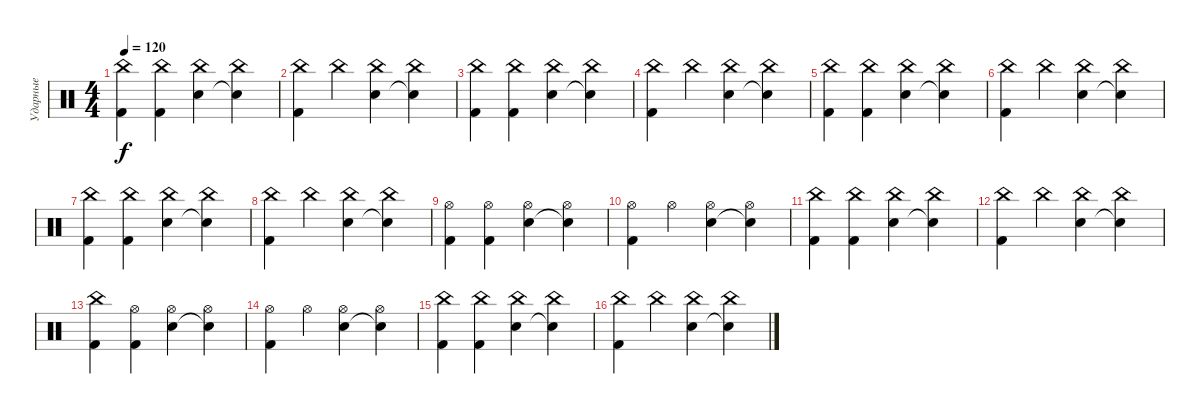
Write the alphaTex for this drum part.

\track ("Ударные" "Ударные") {instrument percussion}
\staff {score}
\articulation defaults
\ts (4 4)
\tempo 120
\clef neutral
\ks c
("China (hit)" "Kick (hit) 2").4{dy f} ("China (hit)" "Kick (hit) 2").4 ("China (hit)" "Electric Snare (hit)").4 ("China (hit)" "Snare (hit)"{t}).4 |
("China (hit)" "Kick (hit) 2").4 "China (hit)".4 ("China (hit)" "Electric Snare (hit)").4 ("China (hit)" "Snare (hit)"{t}).4 |
("China (hit)" "Kick (hit) 2").4 ("China (hit)" "Kick (hit) 2").4 ("China (hit)" "Electric Snare (hit)").4 ("China (hit)" "Snare (hit)"{t}).4 |
("China (hit)" "Kick (hit) 2").4 "China (hit)".4 ("China (hit)" "Electric Snare (hit)").4 ("China (hit)" "Snare (hit)"{t}).4 |
("China (hit)" "Kick (hit) 2").4 ("China (hit)" "Kick (hit) 2").4 ("China (hit)" "Electric Snare (hit)").4 ("China (hit)" "Snare (hit)"{t}).4 |
("China (hit)" "Kick (hit) 2").4 "China (hit)".4 ("China (hit)" "Electric Snare (hit)").4 ("China (hit)" "Snare (hit)"{t}).4 |
("China (hit)" "Kick (hit) 2").4 ("China (hit)" "Kick (hit) 2").4 ("China (hit)" "Electric Snare (hit)").4 ("China (hit)" "Snare (hit)"{t}).4 |
("China (hit)" "Kick (hit) 2").4 "China (hit)".4 ("China (hit)" "Electric Snare (hit)").4 ("China (hit)" "Snare (hit)"{t}).4 |
("Hi-Hat (open)" "Kick (hit) 2").4 ("Hi-Hat (open)" "Kick (hit) 2").4 ("Hi-Hat (open)" "Electric Snare (hit)").4 ("Hi-Hat (open)" "Snare (hit)"{t}).4 |
("Hi-Hat (open)" "Kick (hit) 2").4 "Hi-Hat (open)".4 ("Hi-Hat (open)" "Electric Snare (hit)").4 ("Hi-Hat (open)" "Snare (hit)"{t}).4 |
("China (hit)" "Kick (hit) 2").4 ("China (hit)" "Kick (hit) 2").4 ("China (hit)" "Electric Snare (hit)").4 ("China (hit)" "Snare (hit)"{t}).4 |
("China (hit)" "Kick (hit) 2").4 "China (hit)".4 ("China (hit)" "Electric Snare (hit)").4 ("China (hit)" "Snare (hit)"{t}).4 |
("China (hit)" "Kick (hit) 2").4 ("Hi-Hat (open)" "Kick (hit) 2").4 ("Hi-Hat (open)" "Electric Snare (hit)").4 ("Hi-Hat (open)" "Snare (hit)"{t}).4 |
("Hi-Hat (open)" "Kick (hit) 2").4 "Hi-Hat (open)".4 ("Hi-Hat (open)" "Electric Snare (hit)").4 ("Hi-Hat (open)" "Snare (hit)"{t}).4 |
("China (hit)" "Kick (hit) 2").4 ("China (hit)" "Kick (hit) 2").4 ("China (hit)" "Electric Snare (hit)").4 ("China (hit)" "Snare (hit)"{t}).4 |
("China (hit)" "Kick (hit) 2").4 "China (hit)".4 ("China (hit)" "Electric Snare (hit)").4 ("China (hit)" "Snare (hit)"{t}).4
